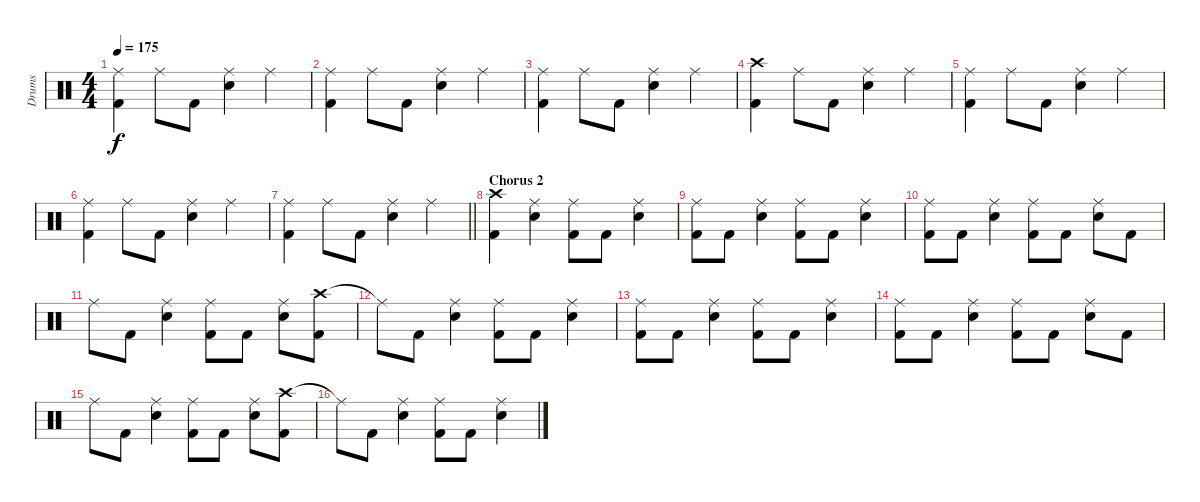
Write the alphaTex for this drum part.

\track ("Drums" "Drums") {instrument percussion}
\staff {score}
\articulation defaults
\ts (4 4)
\tempo 175
\clef neutral
\ks c
("Ride (middle)" "Kick (hit) 2").4{dy f} "Ride (middle)".8 "Kick (hit) 2".8 ("Ride (middle)" "Snare (hit) 2").4 "Ride (middle)".4 |
("Ride (middle)" "Kick (hit) 2").4 "Ride (middle)".8 "Kick (hit) 2".8 ("Ride (middle)" "Snare (hit) 2").4 "Ride (middle)".4 |
("Ride (middle)" "Kick (hit) 2").4 "Ride (middle)".8 "Kick (hit) 2".8 ("Ride (middle)" "Snare (hit) 2").4 "Ride (middle)".4 |
("Crash high (hit)" "Kick (hit) 2").4 "Ride (middle)".8 "Kick (hit) 2".8 ("Ride (middle)" "Snare (hit) 2").4 "Ride (middle)".4 |
("Ride (middle)" "Kick (hit) 2").4 "Ride (middle)".8 "Kick (hit) 2".8 ("Ride (middle)" "Snare (hit) 2").4 "Ride (middle)".4 |
("Ride (middle)" "Kick (hit) 2").4 "Ride (middle)".8 "Kick (hit) 2".8 ("Ride (middle)" "Snare (hit) 2").4 "Ride (middle)".4 |
\barLineRight lightlight
("Ride (middle)" "Kick (hit) 2").4 "Ride (middle)".8 "Kick (hit) 2".8 ("Ride (middle)" "Snare (hit) 2").4 "Ride (middle)".4 |
\section ("" "Chorus 2")
("Crash high (hit)" "Kick (hit) 2").4 ("Ride (middle)" "Snare (hit) 2").4 ("Ride (middle)" "Kick (hit) 2").8 "Kick (hit) 2".8 ("Ride (middle)" "Snare (hit) 2").4 |
("Ride (middle)" "Kick (hit) 2").8 "Kick (hit) 2".8 ("Ride (middle)" "Snare (hit) 2").4 ("Ride (middle)" "Kick (hit) 2").8 "Kick (hit) 2".8 ("Ride (middle)" "Snare (hit) 2").4 |
("Ride (middle)" "Kick (hit) 2").8 "Kick (hit) 2".8 ("Ride (middle)" "Snare (hit) 2").4 ("Ride (middle)" "Kick (hit) 2").8 "Kick (hit) 2".8 ("Ride (middle)" "Snare (hit) 2").8 "Kick (hit) 2".8 |
"Ride (middle)".8 "Kick (hit) 2".8 ("Ride (middle)" "Snare (hit) 2").4 ("Ride (middle)" "Kick (hit) 2").8 "Kick (hit) 2".8 ("Ride (middle)" "Snare (hit) 2").8 ("Crash high (hit)" "Kick (hit) 2").8 |
"Ride (middle)"{t}.8 "Kick (hit) 2".8 ("Ride (middle)" "Snare (hit) 2").4 ("Ride (middle)" "Kick (hit) 2").8 "Kick (hit) 2".8 ("Ride (middle)" "Snare (hit) 2").4 |
("Ride (middle)" "Kick (hit) 2").8 "Kick (hit) 2".8 ("Ride (middle)" "Snare (hit) 2").4 ("Ride (middle)" "Kick (hit) 2").8 "Kick (hit) 2".8 ("Ride (middle)" "Snare (hit) 2").4 |
("Ride (middle)" "Kick (hit) 2").8 "Kick (hit) 2".8 ("Ride (middle)" "Snare (hit) 2").4 ("Ride (middle)" "Kick (hit) 2").8 "Kick (hit) 2".8 ("Ride (middle)" "Snare (hit) 2").8 "Kick (hit) 2".8 |
"Ride (middle)".8 "Kick (hit) 2".8 ("Ride (middle)" "Snare (hit) 2").4 ("Ride (middle)" "Kick (hit) 2").8 "Kick (hit) 2".8 ("Ride (middle)" "Snare (hit) 2").8 ("Crash high (hit)" "Kick (hit) 2").8 |
"Ride (middle)"{t}.8 "Kick (hit) 2".8 ("Ride (middle)" "Snare (hit) 2").4 ("Ride (middle)" "Kick (hit) 2").8 "Kick (hit) 2".8 ("Ride (middle)" "Snare (hit) 2").4
